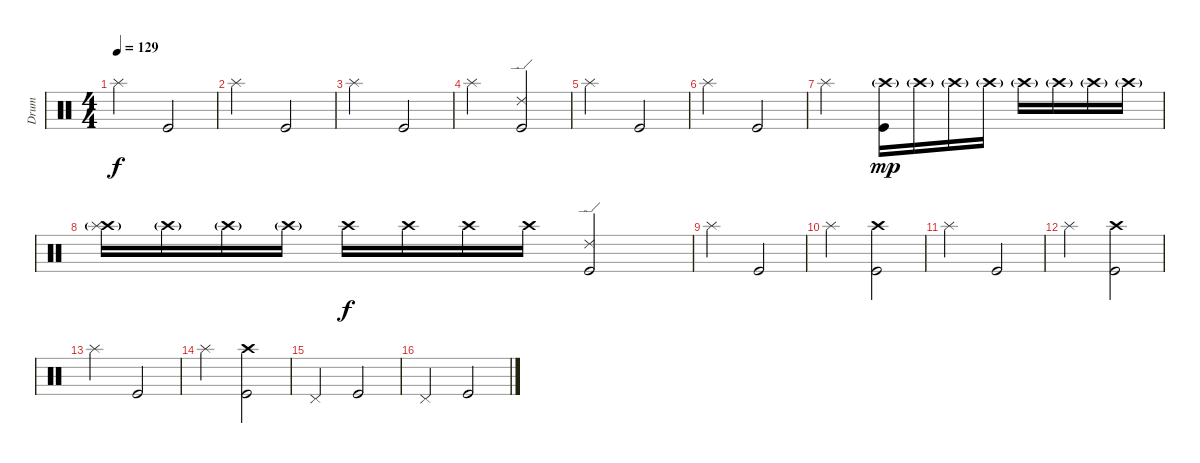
\track ("Drum" "Drum") {instrument percussion}
\staff {score}
\articulation defaults
\ts (4 4)
\tempo 129
\clef neutral
\ks c "Splash (hit)".2{dy f} "Kick (hit)".2
|
"Splash (hit)".2 "Kick (hit)".2 |
"Splash (hit)".2 "Kick (hit)".2 |
"Splash (hit)".2 ("Ride (edge) 2" "Kick (hit)").2 |
"Splash (hit)".2 "Kick (hit)".2 |
"Splash (hit)".2 "Kick (hit)".2 |
"Splash (hit)".2 ("Crash high (hit)"{g} "Kick (hit)").16{dy mp} "Crash high (hit)"{g}.16 "Crash high (hit)"{g}.16 "Crash high (hit)"{g}.16 "Crash high (hit)"{g}.16 "Crash high (hit)"{g}.16 "Crash high (hit)"{g}.16 "Crash high (hit)"{g}.16 |
("Crash high (hit)"{g} "Splash (hit)").16 "Crash high (hit)"{g}.16 "Crash high (hit)"{g}.16 "Crash high (hit)"{g}.16 "Crash high (hit)".16{dy f} "Crash high (hit)".16 "Crash high (hit)".16 "Crash high (hit)".16 ("Ride (edge) 2" "Kick (hit)").2 |
"Splash (hit)".2 "Kick (hit)".2 |
"Splash (hit)".2 ("Crash high (hit)" "Kick (hit)").2 |
"Splash (hit)".2 "Kick (hit)".2 |
"Splash (hit)".2 ("Crash high (hit)" "Kick (hit)").2 |
"Splash (hit)".2 "Kick (hit)".2 |
"Splash (hit)".2 ("Crash high (hit)" "Kick (hit)").2 |
"Pedal Hi-Hat (hit)".2 "Kick (hit)".2 |
"Pedal Hi-Hat (hit)".2 "Kick (hit)".2
